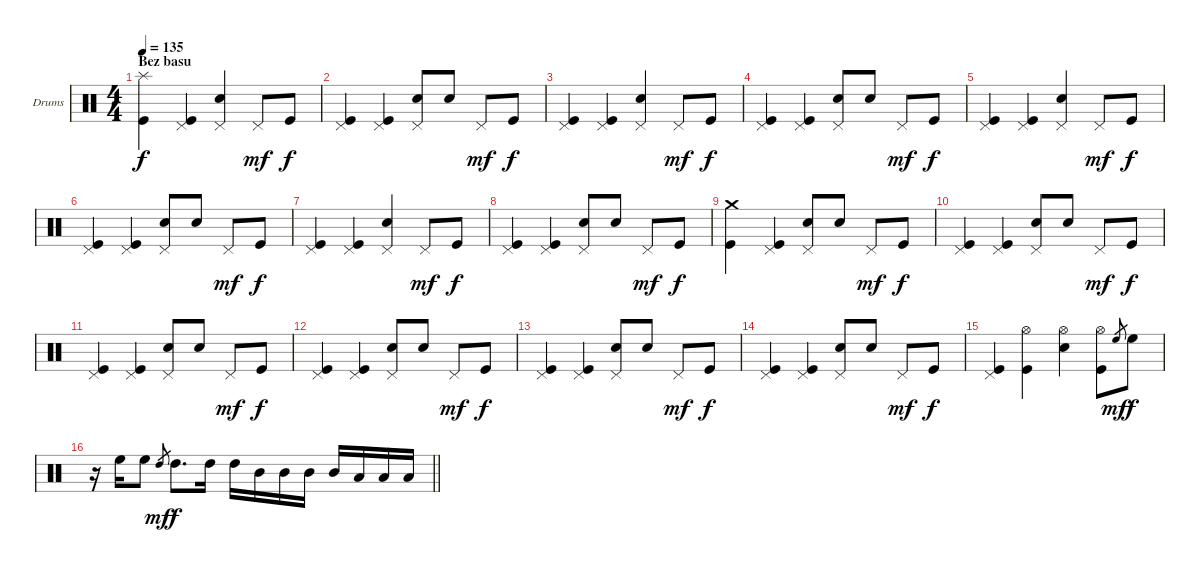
\bracketExtendMode groupsimilarinstruments
\firstSystemTrackNameOrientation horizontal
\otherSystemsTrackNameOrientation horizontal
\track ("Drumkit" "Drums") {instrument percussion}
\staff {score}
\articulation defaults
\ts (4 4)
\section ("" "Bez basu")
\tempo 135
\clef neutral
\ks c
("Kick (hit)" "Splash (hit)").4{dy f} ("Kick (hit)" "Pedal Hi-Hat (hit)").4 ("Snare (hit) 2" "Pedal Hi-Hat (hit)").4 "Pedal Hi-Hat (hit)".8{dy mf} "Kick (hit)".8{dy f} |
("Kick (hit)" "Pedal Hi-Hat (hit)").4 ("Kick (hit)" "Pedal Hi-Hat (hit)").4 ("Snare (hit) 2" "Pedal Hi-Hat (hit)").8 "Snare (hit) 2".8 "Pedal Hi-Hat (hit)".8{dy mf} "Kick (hit)".8{dy f} |
("Kick (hit)" "Pedal Hi-Hat (hit)").4 ("Kick (hit)" "Pedal Hi-Hat (hit)").4 ("Snare (hit) 2" "Pedal Hi-Hat (hit)").4 "Pedal Hi-Hat (hit)".8{dy mf} "Kick (hit)".8{dy f} |
("Kick (hit)" "Pedal Hi-Hat (hit)").4 ("Kick (hit)" "Pedal Hi-Hat (hit)").4 ("Snare (hit) 2" "Pedal Hi-Hat (hit)").8 "Snare (hit) 2".8 "Pedal Hi-Hat (hit)".8{dy mf} "Kick (hit)".8{dy f} |
("Kick (hit)" "Pedal Hi-Hat (hit)").4 ("Kick (hit)" "Pedal Hi-Hat (hit)").4 ("Snare (hit) 2" "Pedal Hi-Hat (hit)").4 "Pedal Hi-Hat (hit)".8{dy mf} "Kick (hit)".8{dy f} |
("Kick (hit)" "Pedal Hi-Hat (hit)").4 ("Kick (hit)" "Pedal Hi-Hat (hit)").4 ("Snare (hit) 2" "Pedal Hi-Hat (hit)").8 "Snare (hit) 2".8 "Pedal Hi-Hat (hit)".8{dy mf} "Kick (hit)".8{dy f} |
("Kick (hit)" "Pedal Hi-Hat (hit)").4 ("Kick (hit)" "Pedal Hi-Hat (hit)").4 ("Snare (hit) 2" "Pedal Hi-Hat (hit)").4 "Pedal Hi-Hat (hit)".8{dy mf} "Kick (hit)".8{dy f} |
("Kick (hit)" "Pedal Hi-Hat (hit)").4 ("Kick (hit)" "Pedal Hi-Hat (hit)").4 ("Snare (hit) 2" "Pedal Hi-Hat (hit)").8 "Snare (hit) 2".8 "Pedal Hi-Hat (hit)".8{dy mf} "Kick (hit)".8{dy f} |
("Kick (hit)" "Crash medium (hit)").4 ("Kick (hit)" "Pedal Hi-Hat (hit)").4 ("Snare (hit) 2" "Pedal Hi-Hat (hit)").8 "Snare (hit) 2".8 "Pedal Hi-Hat (hit)".8{dy mf} "Kick (hit)".8{dy f} |
("Kick (hit)" "Pedal Hi-Hat (hit)").4 ("Kick (hit)" "Pedal Hi-Hat (hit)").4 ("Snare (hit) 2" "Pedal Hi-Hat (hit)").8 "Snare (hit) 2".8 "Pedal Hi-Hat (hit)".8{dy mf} "Kick (hit)".8{dy f} |
("Kick (hit)" "Pedal Hi-Hat (hit)").4 ("Kick (hit)" "Pedal Hi-Hat (hit)").4 ("Snare (hit) 2" "Pedal Hi-Hat (hit)").8 "Snare (hit) 2".8 "Pedal Hi-Hat (hit)".8{dy mf} "Kick (hit)".8{dy f} |
("Kick (hit)" "Pedal Hi-Hat (hit)").4 ("Kick (hit)" "Pedal Hi-Hat (hit)").4 ("Snare (hit) 2" "Pedal Hi-Hat (hit)").8 "Snare (hit) 2".8 "Pedal Hi-Hat (hit)".8{dy mf} "Kick (hit)".8{dy f} |
("Kick (hit)" "Pedal Hi-Hat (hit)").4 ("Kick (hit)" "Pedal Hi-Hat (hit)").4 ("Snare (hit) 2" "Pedal Hi-Hat (hit)").8 "Snare (hit) 2".8 "Pedal Hi-Hat (hit)".8{dy mf} "Kick (hit)".8{dy f} |
("Kick (hit)" "Pedal Hi-Hat (hit)").4 ("Kick (hit)" "Pedal Hi-Hat (hit)").4 ("Snare (hit) 2" "Pedal Hi-Hat (hit)").8 "Snare (hit) 2".8 "Pedal Hi-Hat (hit)".8{dy mf} "Kick (hit)".8{dy f} |
("Kick (hit)" "Pedal Hi-Hat (hit)").4 ("Kick (hit)" "Hi-Hat (open)").4 ("Snare (hit) 2" "Hi-Hat (open)").4 ("Kick (hit)" "Hi-Hat (open)").8 "High Floor Tom (hit)".8{gr dy mf} "High Floor Tom (hit)".8{dy f} |
\barLineRight lightlight
r.16 "High Floor Tom (hit)".16 "High Floor Tom (hit)".8 "High Tom (hit)".8{gr dy mf} "High Tom (hit)".8{d dy f} "High Tom (hit)".16 "High Tom (hit)".16 "Mid Tom (hit)".16 "Mid Tom (hit)".16 "Mid Tom (hit)".16 "Mid Tom (hit)".16 "Low Tom (hit)".16 "Low Tom (hit)".16 "Low Tom (hit)".16
